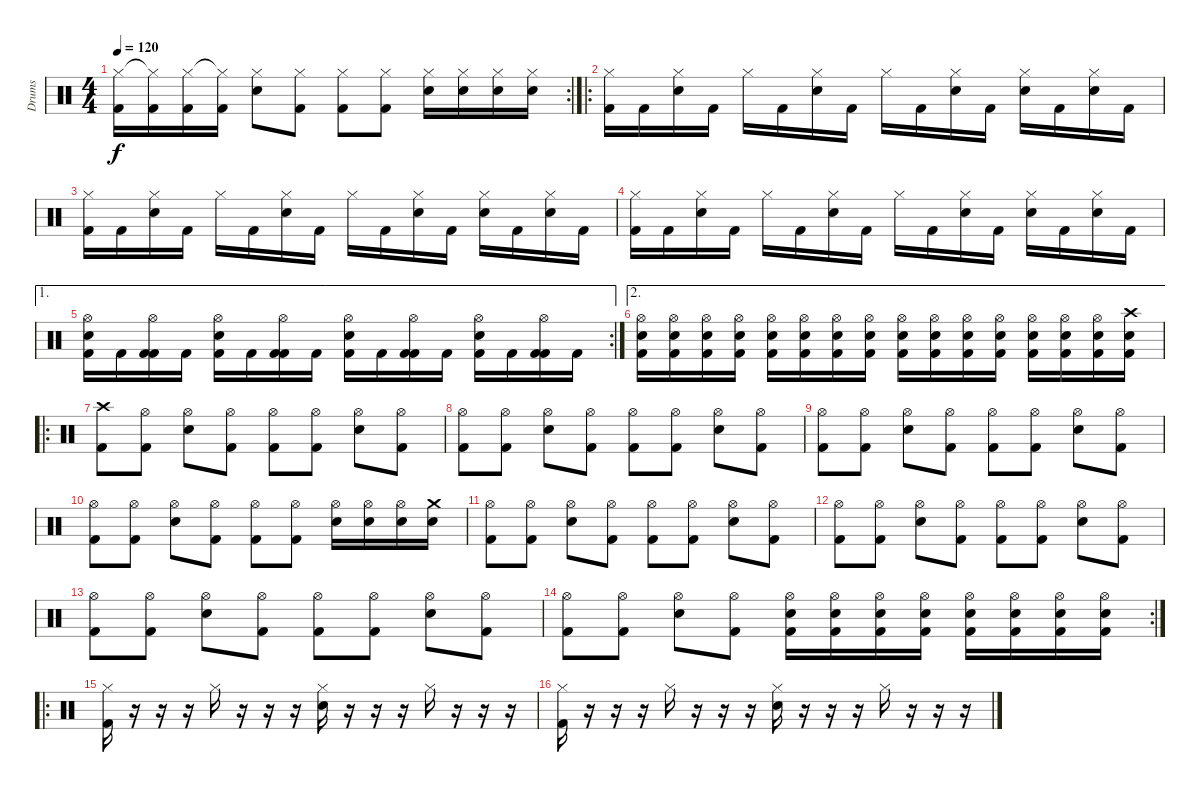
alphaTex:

\track ("Drums" "Drums") {instrument percussion}
\staff {score}
\articulation defaults
\rc 2
\ts (4 4)
\tempo 120
\clef neutral
\ks c
("Hi-Hat (closed)" "Kick (hit) 2").16{dy f} ("Hi-Hat (closed)"{t} "Kick (hit) 2").16 ("Hi-Hat (closed)" "Kick (hit) 2").16 ("Hi-Hat (closed)"{t} "Kick (hit) 2").16 ("Hi-Hat (closed)" "Electric Snare (hit)").8 ("Hi-Hat (closed)" "Kick (hit) 2").8 ("Hi-Hat (closed)" "Kick (hit) 2").8 ("Hi-Hat (closed)" "Kick (hit) 2").8 ("Hi-Hat (closed)" "Electric Snare (hit)").16 ("Hi-Hat (closed)" "Electric Snare (hit)").16 ("Hi-Hat (closed)" "Electric Snare (hit)").16 ("Hi-Hat (closed)" "Electric Snare (hit)").16 |
\ro
("Hi-Hat (closed)" "Kick (hit) 2").16 "Kick (hit) 2".16 ("Hi-Hat (closed)" "Electric Snare (hit)").16 "Kick (hit) 2".16 "Hi-Hat (closed)".16 "Kick (hit) 2".16 ("Hi-Hat (closed)" "Electric Snare (hit)").16 "Kick (hit) 2".16 "Hi-Hat (closed)".16 "Kick (hit) 2".16 ("Hi-Hat (closed)" "Electric Snare (hit)").16 "Kick (hit) 2".16 ("Hi-Hat (closed)" "Electric Snare (hit)").16 "Kick (hit) 2".16 ("Hi-Hat (closed)" "Electric Snare (hit)").16 "Kick (hit) 2".16 |
("Hi-Hat (closed)" "Kick (hit) 2").16 "Kick (hit) 2".16 ("Hi-Hat (closed)" "Electric Snare (hit)").16 "Kick (hit) 2".16 "Hi-Hat (closed)".16 "Kick (hit) 2".16 ("Hi-Hat (closed)" "Electric Snare (hit)").16 "Kick (hit) 2".16 "Hi-Hat (closed)".16 "Kick (hit) 2".16 ("Hi-Hat (closed)" "Electric Snare (hit)").16 "Kick (hit) 2".16 ("Hi-Hat (closed)" "Electric Snare (hit)").16 "Kick (hit) 2".16 ("Hi-Hat (closed)" "Electric Snare (hit)").16 "Kick (hit) 2".16 |
("Hi-Hat (closed)" "Kick (hit) 2").16 "Kick (hit) 2".16 ("Hi-Hat (closed)" "Electric Snare (hit)").16 "Kick (hit) 2".16 "Hi-Hat (closed)".16 "Kick (hit) 2".16 ("Hi-Hat (closed)" "Electric Snare (hit)").16 "Kick (hit) 2".16 "Hi-Hat (closed)".16 "Kick (hit) 2".16 ("Hi-Hat (closed)" "Electric Snare (hit)").16 "Kick (hit) 2".16 ("Hi-Hat (closed)" "Electric Snare (hit)").16 "Kick (hit) 2".16 ("Hi-Hat (closed)" "Electric Snare (hit)").16 "Kick (hit) 2".16 |
\ae 1
\rc 2
("Kick (hit) 2" "Hi-Hat (open)" "Electric Snare (hit)").16 "Kick (hit) 2".16 ("Kick (hit) 2" "Hi-Hat (open)" "Kick (hit) 2").16 "Kick (hit) 2".16 ("Kick (hit) 2" "Hi-Hat (open)" "Electric Snare (hit)").16 "Kick (hit) 2".16 ("Kick (hit) 2" "Hi-Hat (open)" "Kick (hit) 2").16 "Kick (hit) 2".16 ("Kick (hit) 2" "Hi-Hat (open)" "Electric Snare (hit)").16 "Kick (hit) 2".16 ("Kick (hit) 2" "Hi-Hat (open)" "Kick (hit) 2").16 "Kick (hit) 2".16 ("Kick (hit) 2" "Hi-Hat (open)" "Electric Snare (hit)").16 "Kick (hit) 2".16 ("Kick (hit) 2" "Hi-Hat (open)" "Kick (hit) 2").16 "Kick (hit) 2".16 |
\ae 2
("Kick (hit) 2" "Hi-Hat (open)" "Electric Snare (hit)").16 ("Kick (hit) 2" "Hi-Hat (open)" "Electric Snare (hit)").16 ("Kick (hit) 2" "Hi-Hat (open)" "Electric Snare (hit)").16 ("Kick (hit) 2" "Hi-Hat (open)" "Electric Snare (hit)").16 ("Kick (hit) 2" "Hi-Hat (open)" "Electric Snare (hit)").16 ("Kick (hit) 2" "Hi-Hat (open)" "Electric Snare (hit)").16 ("Kick (hit) 2" "Hi-Hat (open)" "Electric Snare (hit)").16 ("Kick (hit) 2" "Hi-Hat (open)" "Electric Snare (hit)").16 ("Kick (hit) 2" "Hi-Hat (open)" "Electric Snare (hit)").16 ("Kick (hit) 2" "Hi-Hat (open)" "Electric Snare (hit)").16 ("Kick (hit) 2" "Hi-Hat (open)" "Electric Snare (hit)").16 ("Kick (hit) 2" "Hi-Hat (open)" "Electric Snare (hit)").16 ("Kick (hit) 2" "Hi-Hat (open)" "Electric Snare (hit)").16 ("Kick (hit) 2" "Hi-Hat (open)" "Electric Snare (hit)").16 ("Kick (hit) 2" "Hi-Hat (open)" "Electric Snare (hit)").16 ("Kick (hit) 2" "Crash high (hit)" "Electric Snare (hit)").16 |
\ro
("Crash high (hit)" "Kick (hit) 2").8 ("Hi-Hat (open)" "Kick (hit) 2").8 ("Hi-Hat (open)" "Electric Snare (hit)").8 ("Hi-Hat (open)" "Kick (hit) 2").8 ("Hi-Hat (open)" "Kick (hit) 2").8 ("Hi-Hat (open)" "Kick (hit) 2").8 ("Hi-Hat (open)" "Electric Snare (hit)").8 ("Hi-Hat (open)" "Kick (hit) 2").8 |
("Hi-Hat (open)" "Kick (hit) 2").8 ("Hi-Hat (open)" "Kick (hit) 2").8 ("Hi-Hat (open)" "Electric Snare (hit)").8 ("Hi-Hat (open)" "Kick (hit) 2").8 ("Hi-Hat (open)" "Kick (hit) 2").8 ("Hi-Hat (open)" "Kick (hit) 2").8 ("Hi-Hat (open)" "Electric Snare (hit)").8 ("Hi-Hat (open)" "Kick (hit) 2").8 |
("Hi-Hat (open)" "Kick (hit) 2").8 ("Hi-Hat (open)" "Kick (hit) 2").8 ("Hi-Hat (open)" "Electric Snare (hit)").8 ("Hi-Hat (open)" "Kick (hit) 2").8 ("Hi-Hat (open)" "Kick (hit) 2").8 ("Hi-Hat (open)" "Kick (hit) 2").8 ("Hi-Hat (open)" "Electric Snare (hit)").8 ("Hi-Hat (open)" "Kick (hit) 2").8 |
("Hi-Hat (open)" "Kick (hit) 2").8 ("Hi-Hat (open)" "Kick (hit) 2").8 ("Hi-Hat (open)" "Electric Snare (hit)").8 ("Hi-Hat (open)" "Kick (hit) 2").8 ("Hi-Hat (open)" "Kick (hit) 2").8 ("Hi-Hat (open)" "Kick (hit) 2").8 ("Hi-Hat (open)" "Electric Snare (hit)").16 ("Hi-Hat (open)" "Electric Snare (hit)").16 ("Hi-Hat (open)" "Electric Snare (hit)").16 ("Crash medium (hit)" "Electric Snare (hit)").16 |
("Hi-Hat (open)" "Kick (hit) 2").8 ("Hi-Hat (open)" "Kick (hit) 2").8 ("Hi-Hat (open)" "Electric Snare (hit)").8 ("Hi-Hat (open)" "Kick (hit) 2").8 ("Hi-Hat (open)" "Kick (hit) 2").8 ("Hi-Hat (open)" "Kick (hit) 2").8 ("Hi-Hat (open)" "Electric Snare (hit)").8 ("Hi-Hat (open)" "Kick (hit) 2").8 |
("Hi-Hat (open)" "Kick (hit) 2").8 ("Hi-Hat (open)" "Kick (hit) 2").8 ("Hi-Hat (open)" "Electric Snare (hit)").8 ("Hi-Hat (open)" "Kick (hit) 2").8 ("Hi-Hat (open)" "Kick (hit) 2").8 ("Hi-Hat (open)" "Kick (hit) 2").8 ("Hi-Hat (open)" "Electric Snare (hit)").8 ("Hi-Hat (open)" "Kick (hit) 2").8 |
("Hi-Hat (open)" "Kick (hit) 2").8 ("Hi-Hat (open)" "Kick (hit) 2").8 ("Hi-Hat (open)" "Electric Snare (hit)").8 ("Hi-Hat (open)" "Kick (hit) 2").8 ("Hi-Hat (open)" "Kick (hit) 2").8 ("Hi-Hat (open)" "Kick (hit) 2").8 ("Hi-Hat (open)" "Electric Snare (hit)").8 ("Hi-Hat (open)" "Kick (hit) 2").8 |
\rc 2
("Hi-Hat (open)" "Kick (hit) 2").8 ("Hi-Hat (open)" "Kick (hit) 2").8 ("Hi-Hat (open)" "Electric Snare (hit)").8 ("Hi-Hat (open)" "Kick (hit) 2").8 ("Hi-Hat (open)" "Kick (hit) 2" "Electric Snare (hit)").16 ("Hi-Hat (open)" "Kick (hit) 2" "Electric Snare (hit)").16 ("Hi-Hat (open)" "Kick (hit) 2" "Electric Snare (hit)").16 ("Hi-Hat (open)" "Kick (hit) 2" "Electric Snare (hit)").16 ("Hi-Hat (open)" "Kick (hit) 2" "Electric Snare (hit)").16 ("Hi-Hat (open)" "Kick (hit) 2" "Electric Snare (hit)").16 ("Hi-Hat (open)" "Kick (hit) 2" "Electric Snare (hit)").16 ("Hi-Hat (open)" "Kick (hit) 2" "Electric Snare (hit)").16 |
\ro
("Hi-Hat (closed)" "Kick (hit) 2").16 r.16 r.16 r.16 "Hi-Hat (closed)".16 r.16 r.16 r.16 ("Hi-Hat (closed)" "Electric Snare (hit)").16 r.16 r.16 r.16 "Hi-Hat (closed)".16 r.16 r.16 r.16 |
("Hi-Hat (closed)" "Kick (hit) 2").16 r.16 r.16 r.16 "Hi-Hat (closed)".16 r.16 r.16 r.16 ("Hi-Hat (closed)" "Electric Snare (hit)").16 r.16 r.16 r.16 "Hi-Hat (closed)".16 r.16 r.16 r.16
